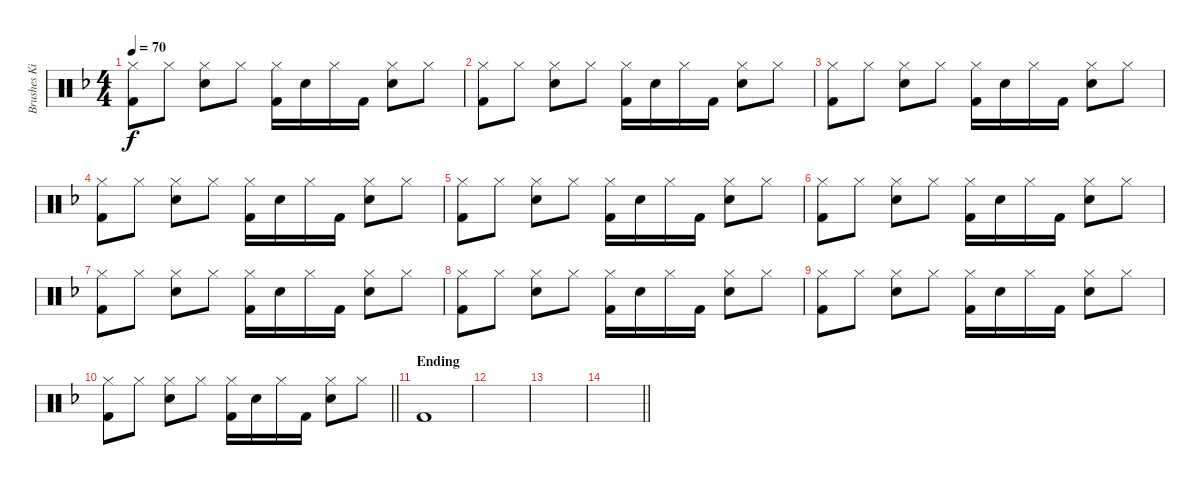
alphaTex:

\track ("Brushes Kit" "Brushes Ki") {instrument percussion}
\staff {score}
\articulation defaults
\ts (4 4)
\tempo 70
\clef neutral
\ks f
("Hi-Hat (closed)" "Kick (hit) 2").8{dy f} "Hi-Hat (closed)".8 ("Hi-Hat (closed)" "Electric Snare (hit)").8 "Hi-Hat (closed)".8 ("Hi-Hat (closed)" "Kick (hit) 2").16 "Electric Snare (hit)".16 "Hi-Hat (closed)".16 "Kick (hit) 2".16 ("Hi-Hat (closed)" "Electric Snare (hit)").8 "Hi-Hat (closed)".8 |
("Hi-Hat (closed)" "Kick (hit) 2").8 "Hi-Hat (closed)".8 ("Hi-Hat (closed)" "Electric Snare (hit)").8 "Hi-Hat (closed)".8 ("Hi-Hat (closed)" "Kick (hit) 2").16 "Electric Snare (hit)".16 "Hi-Hat (closed)".16 "Kick (hit) 2".16 ("Hi-Hat (closed)" "Electric Snare (hit)").8 "Hi-Hat (closed)".8 |
("Hi-Hat (closed)" "Kick (hit) 2").8 "Hi-Hat (closed)".8 ("Hi-Hat (closed)" "Electric Snare (hit)").8 "Hi-Hat (closed)".8 ("Hi-Hat (closed)" "Kick (hit) 2").16 "Electric Snare (hit)".16 "Hi-Hat (closed)".16 "Kick (hit) 2".16 ("Hi-Hat (closed)" "Electric Snare (hit)").8 "Hi-Hat (closed)".8 |
("Hi-Hat (closed)" "Kick (hit) 2").8 "Hi-Hat (closed)".8 ("Hi-Hat (closed)" "Electric Snare (hit)").8 "Hi-Hat (closed)".8 ("Hi-Hat (closed)" "Kick (hit) 2").16 "Electric Snare (hit)".16 "Hi-Hat (closed)".16 "Kick (hit) 2".16 ("Hi-Hat (closed)" "Electric Snare (hit)").8 "Hi-Hat (closed)".8 |
("Hi-Hat (closed)" "Kick (hit) 2").8 "Hi-Hat (closed)".8 ("Hi-Hat (closed)" "Electric Snare (hit)").8 "Hi-Hat (closed)".8 ("Hi-Hat (closed)" "Kick (hit) 2").16 "Electric Snare (hit)".16 "Hi-Hat (closed)".16 "Kick (hit) 2".16 ("Hi-Hat (closed)" "Electric Snare (hit)").8 "Hi-Hat (closed)".8 |
("Hi-Hat (closed)" "Kick (hit) 2").8 "Hi-Hat (closed)".8 ("Hi-Hat (closed)" "Electric Snare (hit)").8 "Hi-Hat (closed)".8 ("Hi-Hat (closed)" "Kick (hit) 2").16 "Electric Snare (hit)".16 "Hi-Hat (closed)".16 "Kick (hit) 2".16 ("Hi-Hat (closed)" "Electric Snare (hit)").8 "Hi-Hat (closed)".8 |
("Hi-Hat (closed)" "Kick (hit) 2").8 "Hi-Hat (closed)".8 ("Hi-Hat (closed)" "Electric Snare (hit)").8 "Hi-Hat (closed)".8 ("Hi-Hat (closed)" "Kick (hit) 2").16 "Electric Snare (hit)".16 "Hi-Hat (closed)".16 "Kick (hit) 2".16 ("Hi-Hat (closed)" "Electric Snare (hit)").8 "Hi-Hat (closed)".8 |
("Hi-Hat (closed)" "Kick (hit) 2").8 "Hi-Hat (closed)".8 ("Hi-Hat (closed)" "Electric Snare (hit)").8 "Hi-Hat (closed)".8 ("Hi-Hat (closed)" "Kick (hit) 2").16 "Electric Snare (hit)".16 "Hi-Hat (closed)".16 "Kick (hit) 2".16 ("Hi-Hat (closed)" "Electric Snare (hit)").8 "Hi-Hat (closed)".8 |
("Hi-Hat (closed)" "Kick (hit) 2").8 "Hi-Hat (closed)".8 ("Hi-Hat (closed)" "Electric Snare (hit)").8 "Hi-Hat (closed)".8 ("Hi-Hat (closed)" "Kick (hit) 2").16 "Electric Snare (hit)".16 "Hi-Hat (closed)".16 "Kick (hit) 2".16 ("Hi-Hat (closed)" "Electric Snare (hit)").8 "Hi-Hat (closed)".8 |
\barLineRight lightlight
("Hi-Hat (closed)" "Kick (hit) 2").8 "Hi-Hat (closed)".8 ("Hi-Hat (closed)" "Electric Snare (hit)").8 "Hi-Hat (closed)".8 ("Hi-Hat (closed)" "Kick (hit) 2").16 "Electric Snare (hit)".16 "Hi-Hat (closed)".16 "Kick (hit) 2".16 ("Hi-Hat (closed)" "Electric Snare (hit)").8 "Hi-Hat (closed)".8 |
\section ("" "Ending")
"Kick (hit) 2".1 |
|
|
\barLineRight lightlight
